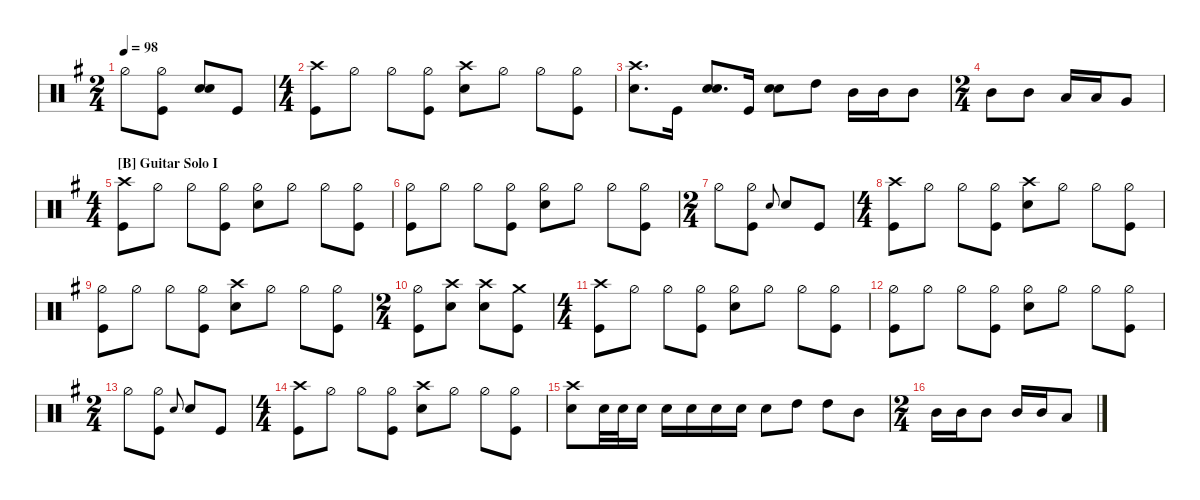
\defaultSystemsLayout 4
\hideDynamics
\bracketExtendMode nobrackets
\otherSystemsTrackNameOrientation horizontal
\track ("Drums" " ") {instrument percussion}
\staff
\articulation defaults
\ts (2 4)
\beaming (8 2 2)
\tempo 98
\clef neutral
\ks eminor "Hi-Hat (half)"{acc forcenatural}.8{dy f}
("Hi-Hat (half)"{acc forcenatural} "Kick (hit)"{acc forcenatural}).8 ("Snare (hit) 2"{acc forcenatural} "Snare (hit) 2"{acc forcenatural}).8 "Kick (hit)"{acc forcenatural}.8 |
\ts (4 4)
\beaming (8 2 2 2 2)
("Kick (hit)"{acc forcenatural} "Crash high (hit)"{acc forcenatural}).8 "Hi-Hat (half)"{acc forcenatural}.8 "Hi-Hat (half)"{acc forcenatural}.8 ("Hi-Hat (half)"{acc forcenatural} "Kick (hit)"{acc forcenatural}).8 ("Snare (hit) 2"{acc forcenatural} "Crash high (hit)"{acc forcenatural}).8 "Hi-Hat (half)"{acc forcenatural}.8 "Hi-Hat (half)"{acc forcenatural}.8 ("Hi-Hat (half)"{acc forcenatural} "Kick (hit)"{acc forcenatural}).8 |
("Crash high (hit)"{acc forcenatural} "Snare (hit) 2"{acc forcenatural}).8{d} "Kick (hit)"{acc forcenatural}.16 ("Snare (hit) 2"{acc forcenatural} "Snare (hit) 2"{acc forcenatural}).8{d} "Kick (hit)"{acc forcenatural}.16 ("Snare (hit) 2"{acc forcenatural} "Snare (hit) 2"{acc forcenatural}).8 "High Tom (hit)"{acc forcenatural}.8{dy ff} "Mid Tom (hit)"{acc forcenatural}.16 "Mid Tom (hit)"{acc forcenatural}.16 "Mid Tom (hit)"{acc forcenatural}.8 |
\ts (2 4)
\beaming (8 2 2)
"Mid Tom (hit)"{acc forcenatural}.8 "Mid Tom (hit)"{acc forcenatural}.8 "Low Tom (hit)"{acc forcenatural}.16 "Low Tom (hit)"{acc forcenatural}.16 "Very Low Tom (hit)"{acc forcenatural}.8 |
\ts (4 4)
\beaming (8 2 2 2 2)
\section ("B" "Guitar Solo I")
("Kick (hit)"{acc forcenatural} "Crash high (hit)"{acc forcenatural}).8{dy f} "Hi-Hat (half)"{acc forcenatural}.8 "Hi-Hat (half)"{acc forcenatural}.8 ("Hi-Hat (half)"{acc forcenatural} "Kick (hit)"{acc forcenatural}).8 ("Hi-Hat (half)"{acc forcenatural} "Snare (hit) 2"{acc forcenatural}).8 "Hi-Hat (half)"{acc forcenatural}.8 "Hi-Hat (half)"{acc forcenatural}.8 ("Hi-Hat (half)"{acc forcenatural} "Kick (hit)"{acc forcenatural}).8 |
("Hi-Hat (half)"{acc forcenatural} "Kick (hit)"{acc forcenatural}).8 "Hi-Hat (half)"{acc forcenatural}.8 "Hi-Hat (half)"{acc forcenatural}.8 ("Hi-Hat (half)"{acc forcenatural} "Kick (hit)"{acc forcenatural}).8 ("Hi-Hat (half)"{acc forcenatural} "Snare (hit) 2"{acc forcenatural}).8 "Hi-Hat (half)"{acc forcenatural}.8 "Hi-Hat (half)"{acc forcenatural}.8 ("Hi-Hat (half)"{acc forcenatural} "Kick (hit)"{acc forcenatural}).8 |
\ts (2 4)
\beaming (8 2 2)
"Hi-Hat (half)"{acc forcenatural}.8 ("Hi-Hat (half)"{acc forcenatural} "Kick (hit)"{acc forcenatural}).8 "Snare (hit) 2"{acc forcenatural}.8{gr onbeat} "Snare (hit) 2"{acc forcenatural}.8 "Kick (hit)"{acc forcenatural}.8 |
\ts (4 4)
\beaming (8 2 2 2 2)
("Kick (hit)"{acc forcenatural} "Crash high (hit)"{acc forcenatural}).8 "Hi-Hat (half)"{acc forcenatural}.8 "Hi-Hat (half)"{acc forcenatural}.8 ("Hi-Hat (half)"{acc forcenatural} "Kick (hit)"{acc forcenatural}).8 ("Snare (hit) 2"{acc forcenatural} "Crash high (hit)"{acc forcenatural}).8 "Hi-Hat (half)"{acc forcenatural}.8 "Hi-Hat (half)"{acc forcenatural}.8 ("Hi-Hat (half)"{acc forcenatural} "Kick (hit)"{acc forcenatural}).8 |
("Hi-Hat (half)"{acc forcenatural} "Kick (hit)"{acc forcenatural}).8 "Hi-Hat (half)"{acc forcenatural}.8 "Hi-Hat (half)"{acc forcenatural}.8 ("Hi-Hat (half)"{acc forcenatural} "Kick (hit)"{acc forcenatural}).8 ("Snare (hit) 2"{acc forcenatural} "Crash high (hit)"{acc forcenatural}).8 "Hi-Hat (half)"{acc forcenatural}.8 "Hi-Hat (half)"{acc forcenatural}.8 ("Hi-Hat (half)"{acc forcenatural} "Kick (hit)"{acc forcenatural}).8 |
\ts (2 4)
\beaming (8 2 2)
("Kick (hit)"{acc forcenatural} "Hi-Hat (half)"{acc forcenatural}).8 ("Snare (hit) 2"{acc forcenatural} "Crash high (hit)"{acc forcenatural}).8 ("Snare (hit) 2"{acc forcenatural} "Crash high (hit)"{acc forcenatural}).8 ("Kick (hit)"{acc forcenatural} "Crash medium (hit)"{acc forcenatural}).8 |
\ts (4 4)
\beaming (8 2 2 2 2)
("Kick (hit)"{acc forcenatural} "Crash high (hit)"{acc forcenatural}).8 "Hi-Hat (half)"{acc forcenatural}.8 "Hi-Hat (half)"{acc forcenatural}.8 ("Hi-Hat (half)"{acc forcenatural} "Kick (hit)"{acc forcenatural}).8 ("Hi-Hat (half)"{acc forcenatural} "Snare (hit) 2"{acc forcenatural}).8 "Hi-Hat (half)"{acc forcenatural}.8 "Hi-Hat (half)"{acc forcenatural}.8 ("Hi-Hat (half)"{acc forcenatural} "Kick (hit)"{acc forcenatural}).8 |
("Hi-Hat (half)"{acc forcenatural} "Kick (hit)"{acc forcenatural}).8 "Hi-Hat (half)"{acc forcenatural}.8 "Hi-Hat (half)"{acc forcenatural}.8 ("Hi-Hat (half)"{acc forcenatural} "Kick (hit)"{acc forcenatural}).8 ("Hi-Hat (half)"{acc forcenatural} "Snare (hit) 2"{acc forcenatural}).8 "Hi-Hat (half)"{acc forcenatural}.8 "Hi-Hat (half)"{acc forcenatural}.8 ("Hi-Hat (half)"{acc forcenatural} "Kick (hit)"{acc forcenatural}).8 |
\ts (2 4)
\beaming (8 2 2)
"Hi-Hat (half)"{acc forcenatural}.8 ("Hi-Hat (half)"{acc forcenatural} "Kick (hit)"{acc forcenatural}).8 "Snare (hit) 2"{acc forcenatural}.8{gr onbeat} "Snare (hit) 2"{acc forcenatural}.8 "Kick (hit)"{acc forcenatural}.8 |
\ts (4 4)
\beaming (8 2 2 2 2)
("Kick (hit)"{acc forcenatural} "Crash high (hit)"{acc forcenatural}).8 "Hi-Hat (half)"{acc forcenatural}.8 "Hi-Hat (half)"{acc forcenatural}.8 ("Hi-Hat (half)"{acc forcenatural} "Kick (hit)"{acc forcenatural}).8 ("Snare (hit) 2"{acc forcenatural} "Crash high (hit)"{acc forcenatural}).8 "Hi-Hat (half)"{acc forcenatural}.8 "Hi-Hat (half)"{acc forcenatural}.8 ("Hi-Hat (half)"{acc forcenatural} "Kick (hit)"{acc forcenatural}).8 |
("Crash high (hit)"{acc forcenatural} "Snare (hit) 2"{acc forcenatural}).8 "Snare (hit) 2"{acc forcenatural}.32{dy p} "Snare (hit) 2"{acc forcenatural}.32 "Snare (hit) 2"{acc forcenatural}.16 "Snare (hit) 2"{acc forcenatural}.16{dy mf} "Snare (hit) 2"{acc forcenatural}.16 "Snare (hit) 2"{acc forcenatural}.16{dy f} "Snare (hit) 2"{acc forcenatural}.16 "Snare (hit) 2"{acc forcenatural}.8{dy ff} "High Tom (hit)"{acc forcenatural}.8{dy fff} "High Tom (hit)"{acc forcenatural}.8 "Mid Tom (hit)"{acc forcenatural}.8 |
\ts (2 4)
\beaming (8 2 2)
"Mid Tom (hit)"{acc forcenatural}.16 "Mid Tom (hit)"{acc forcenatural}.16 "Mid Tom (hit)"{acc forcenatural}.8 "Mid Tom (hit)"{acc forcenatural}.16 "Mid Tom (hit)"{acc forcenatural}.16 "Low Tom (hit)"{acc forcenatural}.8
